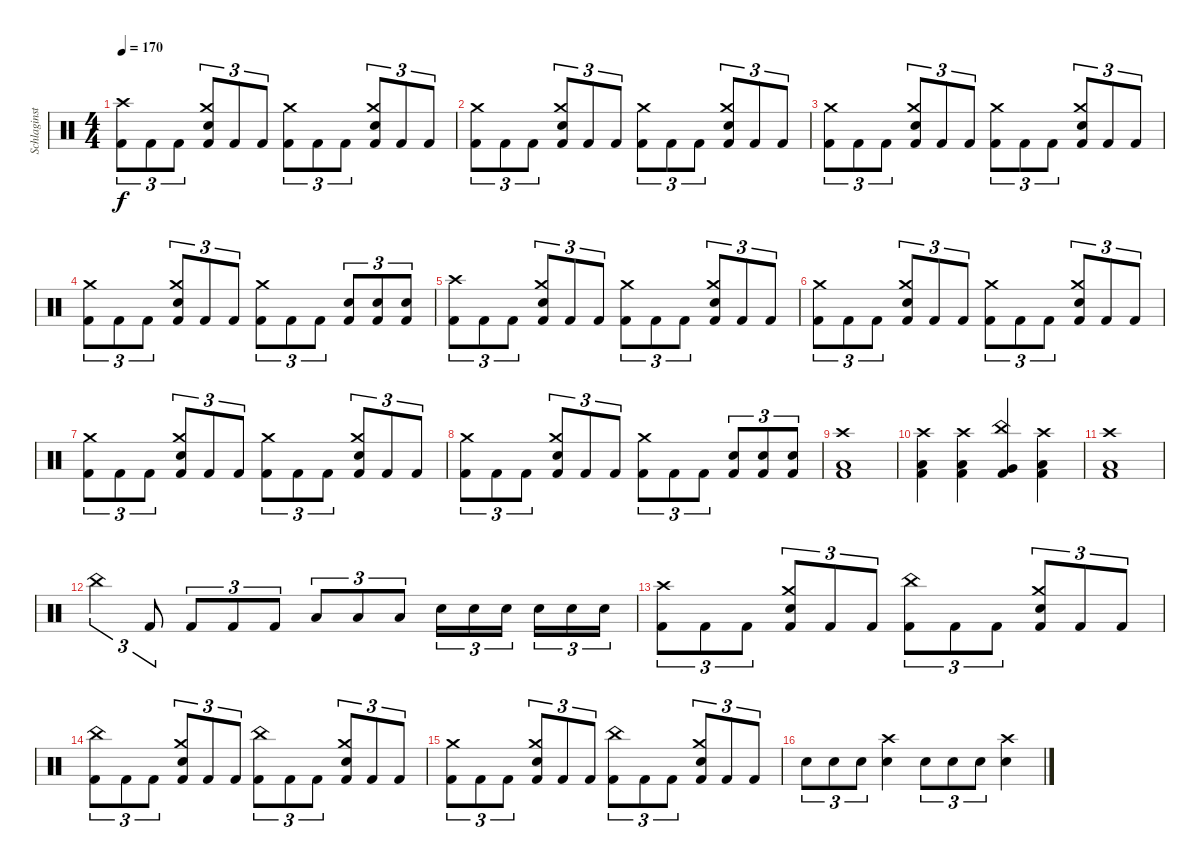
\track ("Schlaginstrumente - Auswahl" "Schlaginst") {instrument percussion}
\staff {score}
\articulation defaults
\ts (4 4)
\tempo 170
\clef neutral
\ks c
("Crash high (hit)" "Kick (hit) 2").8{tu (3 2) dy f} "Kick (hit) 2".8{tu (3 2)} "Kick (hit) 2".8{tu (3 2)} ("Crash medium (hit)" "Electric Snare (hit)" "Kick (hit) 2").8{tu (3 2)} "Kick (hit) 2".8{tu (3 2)} "Kick (hit) 2".8{tu (3 2)} ("Crash medium (hit)" "Kick (hit) 2").8{tu (3 2)} "Kick (hit) 2".8{tu (3 2)} "Kick (hit) 2".8{tu (3 2)} ("Crash medium (hit)" "Electric Snare (hit)" "Kick (hit) 2").8{tu (3 2)} "Kick (hit) 2".8{tu (3 2)} "Kick (hit) 2".8{tu (3 2)} |
("Crash medium (hit)" "Kick (hit) 2").8{tu (3 2)} "Kick (hit) 2".8{tu (3 2)} "Kick (hit) 2".8{tu (3 2)} ("Crash medium (hit)" "Electric Snare (hit)" "Kick (hit) 2").8{tu (3 2)} "Kick (hit) 2".8{tu (3 2)} "Kick (hit) 2".8{tu (3 2)} ("Crash medium (hit)" "Kick (hit) 2").8{tu (3 2)} "Kick (hit) 2".8{tu (3 2)} "Kick (hit) 2".8{tu (3 2)} ("Crash medium (hit)" "Electric Snare (hit)" "Kick (hit) 2").8{tu (3 2)} "Kick (hit) 2".8{tu (3 2)} "Kick (hit) 2".8{tu (3 2)} |
("Crash medium (hit)" "Kick (hit) 2").8{tu (3 2)} "Kick (hit) 2".8{tu (3 2)} "Kick (hit) 2".8{tu (3 2)} ("Crash medium (hit)" "Electric Snare (hit)" "Kick (hit) 2").8{tu (3 2)} "Kick (hit) 2".8{tu (3 2)} "Kick (hit) 2".8{tu (3 2)} ("Crash medium (hit)" "Kick (hit) 2").8{tu (3 2)} "Kick (hit) 2".8{tu (3 2)} "Kick (hit) 2".8{tu (3 2)} ("Crash medium (hit)" "Electric Snare (hit)" "Kick (hit) 2").8{tu (3 2)} "Kick (hit) 2".8{tu (3 2)} "Kick (hit) 2".8{tu (3 2)} |
("Crash medium (hit)" "Kick (hit) 2").8{tu (3 2)} "Kick (hit) 2".8{tu (3 2)} "Kick (hit) 2".8{tu (3 2)} ("Crash medium (hit)" "Electric Snare (hit)" "Kick (hit) 2").8{tu (3 2)} "Kick (hit) 2".8{tu (3 2)} "Kick (hit) 2".8{tu (3 2)} ("Crash medium (hit)" "Kick (hit) 2").8{tu (3 2)} "Kick (hit) 2".8{tu (3 2)} "Kick (hit) 2".8{tu (3 2)} ("Electric Snare (hit)" "Kick (hit) 2").8{tu (3 2)} ("Electric Snare (hit)" "Kick (hit) 2").8{tu (3 2)} ("Electric Snare (hit)" "Kick (hit) 2").8{tu (3 2)} |
("Crash high (hit)" "Kick (hit) 2").8{tu (3 2)} "Kick (hit) 2".8{tu (3 2)} "Kick (hit) 2".8{tu (3 2)} ("Crash medium (hit)" "Electric Snare (hit)" "Kick (hit) 2").8{tu (3 2)} "Kick (hit) 2".8{tu (3 2)} "Kick (hit) 2".8{tu (3 2)} ("Crash medium (hit)" "Kick (hit) 2").8{tu (3 2)} "Kick (hit) 2".8{tu (3 2)} "Kick (hit) 2".8{tu (3 2)} ("Crash medium (hit)" "Electric Snare (hit)" "Kick (hit) 2").8{tu (3 2)} "Kick (hit) 2".8{tu (3 2)} "Kick (hit) 2".8{tu (3 2)} |
("Crash medium (hit)" "Kick (hit) 2").8{tu (3 2)} "Kick (hit) 2".8{tu (3 2)} "Kick (hit) 2".8{tu (3 2)} ("Crash medium (hit)" "Electric Snare (hit)" "Kick (hit) 2").8{tu (3 2)} "Kick (hit) 2".8{tu (3 2)} "Kick (hit) 2".8{tu (3 2)} ("Crash medium (hit)" "Kick (hit) 2").8{tu (3 2)} "Kick (hit) 2".8{tu (3 2)} "Kick (hit) 2".8{tu (3 2)} ("Crash medium (hit)" "Electric Snare (hit)" "Kick (hit) 2").8{tu (3 2)} "Kick (hit) 2".8{tu (3 2)} "Kick (hit) 2".8{tu (3 2)} |
("Crash medium (hit)" "Kick (hit) 2").8{tu (3 2)} "Kick (hit) 2".8{tu (3 2)} "Kick (hit) 2".8{tu (3 2)} ("Crash medium (hit)" "Electric Snare (hit)" "Kick (hit) 2").8{tu (3 2)} "Kick (hit) 2".8{tu (3 2)} "Kick (hit) 2".8{tu (3 2)} ("Crash medium (hit)" "Kick (hit) 2").8{tu (3 2)} "Kick (hit) 2".8{tu (3 2)} "Kick (hit) 2".8{tu (3 2)} ("Crash medium (hit)" "Electric Snare (hit)" "Kick (hit) 2").8{tu (3 2)} "Kick (hit) 2".8{tu (3 2)} "Kick (hit) 2".8{tu (3 2)} |
("Crash medium (hit)" "Kick (hit) 2").8{tu (3 2)} "Kick (hit) 2".8{tu (3 2)} "Kick (hit) 2".8{tu (3 2)} ("Crash medium (hit)" "Electric Snare (hit)" "Kick (hit) 2").8{tu (3 2)} "Kick (hit) 2".8{tu (3 2)} "Kick (hit) 2".8{tu (3 2)} ("Crash medium (hit)" "Kick (hit) 2").8{tu (3 2)} "Kick (hit) 2".8{tu (3 2)} "Kick (hit) 2".8{tu (3 2)} ("Electric Snare (hit)" "Kick (hit) 2").8{tu (3 2)} ("Electric Snare (hit)" "Kick (hit) 2").8{tu (3 2)} ("Electric Snare (hit)" "Kick (hit) 2").8{tu (3 2)} |
("Crash high (hit)" "Low Tom (hit)" "Kick (hit) 2").1 |
("Crash high (hit)" "Low Tom (hit)" "Kick (hit) 2").4 ("Crash high (hit)" "Low Tom (hit)" "Kick (hit) 2").4 ("China (hit)" "Very Low Tom (hit)" "Kick (hit) 2").4 ("Crash high (hit)" "Low Tom (hit)" "Kick (hit) 2").4 |
("Crash high (hit)" "Low Tom (hit)" "Kick (hit) 2").1 |
"China (hit)".4{tu (3 2)} "Kick (hit) 2".8{tu (3 2)} "Kick (hit) 2".8{tu (3 2)} "Kick (hit) 2".8{tu (3 2)} "Kick (hit) 2".8{tu (3 2)} "Low Tom (hit)".8{tu (3 2)} "Low Tom (hit)".8{tu (3 2)} "Low Tom (hit)".8{tu (3 2)} "Electric Snare (hit)".16{tu (3 2)} "Electric Snare (hit)".16{tu (3 2)} "Electric Snare (hit)".16{tu (3 2) beam splitsecondary} "Electric Snare (hit)".16{tu (3 2)} "Electric Snare (hit)".16{tu (3 2)} "Electric Snare (hit)".16{tu (3 2)} |
("Crash high (hit)" "Kick (hit) 2").8{tu (3 2)} "Kick (hit) 2".8{tu (3 2)} "Kick (hit) 2".8{tu (3 2)} ("Crash medium (hit)" "Electric Snare (hit)" "Kick (hit) 2").8{tu (3 2)} "Kick (hit) 2".8{tu (3 2)} "Kick (hit) 2".8{tu (3 2)} ("China (hit)" "Kick (hit) 2").8{tu (3 2)} "Kick (hit) 2".8{tu (3 2)} "Kick (hit) 2".8{tu (3 2)} ("Crash medium (hit)" "Electric Snare (hit)" "Kick (hit) 2").8{tu (3 2)} "Kick (hit) 2".8{tu (3 2)} "Kick (hit) 2".8{tu (3 2)} |
("China (hit)" "Kick (hit) 2").8{tu (3 2)} "Kick (hit) 2".8{tu (3 2)} "Kick (hit) 2".8{tu (3 2)} ("Crash medium (hit)" "Electric Snare (hit)" "Kick (hit) 2").8{tu (3 2)} "Kick (hit) 2".8{tu (3 2)} "Kick (hit) 2".8{tu (3 2)} ("China (hit)" "Kick (hit) 2").8{tu (3 2)} "Kick (hit) 2".8{tu (3 2)} "Kick (hit) 2".8{tu (3 2)} ("Crash medium (hit)" "Electric Snare (hit)" "Kick (hit) 2").8{tu (3 2)} "Kick (hit) 2".8{tu (3 2)} "Kick (hit) 2".8{tu (3 2)} |
("Crash medium (hit)" "Kick (hit) 2").8{tu (3 2)} "Kick (hit) 2".8{tu (3 2)} "Kick (hit) 2".8{tu (3 2)} ("Crash medium (hit)" "Electric Snare (hit)" "Kick (hit) 2").8{tu (3 2)} "Kick (hit) 2".8{tu (3 2)} "Kick (hit) 2".8{tu (3 2)} ("China (hit)" "Kick (hit) 2").8{tu (3 2)} "Kick (hit) 2".8{tu (3 2)} "Kick (hit) 2".8{tu (3 2)} ("Crash medium (hit)" "Electric Snare (hit)" "Kick (hit) 2").8{tu (3 2)} "Kick (hit) 2".8{tu (3 2)} "Kick (hit) 2".8{tu (3 2)} |
"Electric Snare (hit)".8{tu (3 2)} "Electric Snare (hit)".8{tu (3 2)} "Electric Snare (hit)".8{tu (3 2)} ("Crash high (hit)" "Electric Snare (hit)").4 "Electric Snare (hit)".8{tu (3 2)} "Electric Snare (hit)".8{tu (3 2)} "Electric Snare (hit)".8{tu (3 2)} ("Crash high (hit)" "Electric Snare (hit)").4
